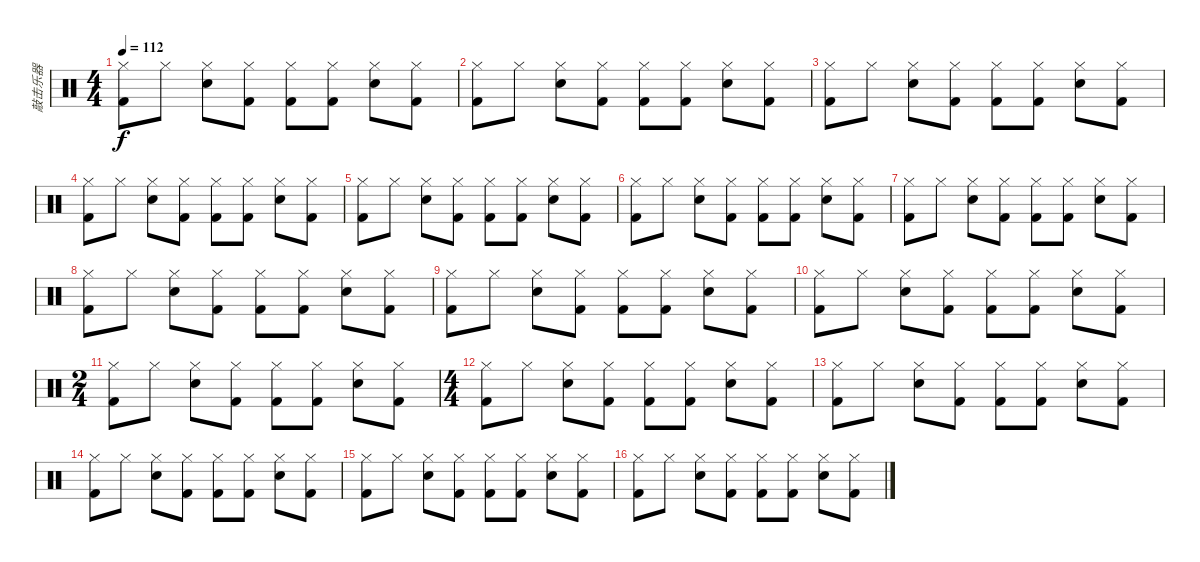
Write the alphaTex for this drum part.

\track ("敲击乐器" "敲击乐器") {instrument percussion}
\staff {score}
\articulation defaults
\ts (4 4)
\tempo 112
\clef neutral
\ks c
("Hi-Hat (closed)" "Kick (hit) 2").8{dy f} "Hi-Hat (closed)".8 ("Hi-Hat (closed)" "Snare (hit) 2").8 ("Hi-Hat (closed)" "Kick (hit) 2").8 ("Hi-Hat (closed)" "Kick (hit) 2").8 ("Hi-Hat (closed)" "Kick (hit) 2").8 ("Hi-Hat (closed)" "Snare (hit) 2").8 ("Hi-Hat (closed)" "Kick (hit) 2").8 |
("Hi-Hat (closed)" "Kick (hit) 2").8 "Hi-Hat (closed)".8 ("Hi-Hat (closed)" "Snare (hit) 2").8 ("Hi-Hat (closed)" "Kick (hit) 2").8 ("Hi-Hat (closed)" "Kick (hit) 2").8 ("Hi-Hat (closed)" "Kick (hit) 2").8 ("Hi-Hat (closed)" "Snare (hit) 2").8 ("Hi-Hat (closed)" "Kick (hit) 2").8 |
("Hi-Hat (closed)" "Kick (hit) 2").8 "Hi-Hat (closed)".8 ("Hi-Hat (closed)" "Snare (hit) 2").8 ("Hi-Hat (closed)" "Kick (hit) 2").8 ("Hi-Hat (closed)" "Kick (hit) 2").8 ("Hi-Hat (closed)" "Kick (hit) 2").8 ("Hi-Hat (closed)" "Snare (hit) 2").8 ("Hi-Hat (closed)" "Kick (hit) 2").8 |
("Hi-Hat (closed)" "Kick (hit) 2").8 "Hi-Hat (closed)".8 ("Hi-Hat (closed)" "Snare (hit) 2").8 ("Hi-Hat (closed)" "Kick (hit) 2").8 ("Hi-Hat (closed)" "Kick (hit) 2").8 ("Hi-Hat (closed)" "Kick (hit) 2").8 ("Hi-Hat (closed)" "Snare (hit) 2").8 ("Hi-Hat (closed)" "Kick (hit) 2").8 |
("Hi-Hat (closed)" "Kick (hit) 2").8 "Hi-Hat (closed)".8 ("Hi-Hat (closed)" "Snare (hit) 2").8 ("Hi-Hat (closed)" "Kick (hit) 2").8 ("Hi-Hat (closed)" "Kick (hit) 2").8 ("Hi-Hat (closed)" "Kick (hit) 2").8 ("Hi-Hat (closed)" "Snare (hit) 2").8 ("Hi-Hat (closed)" "Kick (hit) 2").8 |
("Hi-Hat (closed)" "Kick (hit) 2").8 "Hi-Hat (closed)".8 ("Hi-Hat (closed)" "Snare (hit) 2").8 ("Hi-Hat (closed)" "Kick (hit) 2").8 ("Hi-Hat (closed)" "Kick (hit) 2").8 ("Hi-Hat (closed)" "Kick (hit) 2").8 ("Hi-Hat (closed)" "Snare (hit) 2").8 ("Hi-Hat (closed)" "Kick (hit) 2").8 |
("Hi-Hat (closed)" "Kick (hit) 2").8 "Hi-Hat (closed)".8 ("Hi-Hat (closed)" "Snare (hit) 2").8 ("Hi-Hat (closed)" "Kick (hit) 2").8 ("Hi-Hat (closed)" "Kick (hit) 2").8 ("Hi-Hat (closed)" "Kick (hit) 2").8 ("Hi-Hat (closed)" "Snare (hit) 2").8 ("Hi-Hat (closed)" "Kick (hit) 2").8 |
("Hi-Hat (closed)" "Kick (hit) 2").8 "Hi-Hat (closed)".8 ("Hi-Hat (closed)" "Snare (hit) 2").8 ("Hi-Hat (closed)" "Kick (hit) 2").8 ("Hi-Hat (closed)" "Kick (hit) 2").8 ("Hi-Hat (closed)" "Kick (hit) 2").8 ("Hi-Hat (closed)" "Snare (hit) 2").8 ("Hi-Hat (closed)" "Kick (hit) 2").8 |
("Hi-Hat (closed)" "Kick (hit) 2").8 "Hi-Hat (closed)".8 ("Hi-Hat (closed)" "Snare (hit) 2").8 ("Hi-Hat (closed)" "Kick (hit) 2").8 ("Hi-Hat (closed)" "Kick (hit) 2").8 ("Hi-Hat (closed)" "Kick (hit) 2").8 ("Hi-Hat (closed)" "Snare (hit) 2").8 ("Hi-Hat (closed)" "Kick (hit) 2").8 |
("Hi-Hat (closed)" "Kick (hit) 2").8 "Hi-Hat (closed)".8 ("Hi-Hat (closed)" "Snare (hit) 2").8 ("Hi-Hat (closed)" "Kick (hit) 2").8 ("Hi-Hat (closed)" "Kick (hit) 2").8 ("Hi-Hat (closed)" "Kick (hit) 2").8 ("Hi-Hat (closed)" "Snare (hit) 2").8 ("Hi-Hat (closed)" "Kick (hit) 2").8 |
\ts (2 4)
("Hi-Hat (closed)" "Kick (hit) 2").8 "Hi-Hat (closed)".8 ("Hi-Hat (closed)" "Snare (hit) 2").8 ("Hi-Hat (closed)" "Kick (hit) 2").8 ("Hi-Hat (closed)" "Kick (hit) 2").8 ("Hi-Hat (closed)" "Kick (hit) 2").8 ("Hi-Hat (closed)" "Snare (hit) 2").8 ("Hi-Hat (closed)" "Kick (hit) 2").8 |
\ts (4 4)
("Hi-Hat (closed)" "Kick (hit) 2").8 "Hi-Hat (closed)".8 ("Hi-Hat (closed)" "Snare (hit) 2").8 ("Hi-Hat (closed)" "Kick (hit) 2").8 ("Hi-Hat (closed)" "Kick (hit) 2").8 ("Hi-Hat (closed)" "Kick (hit) 2").8 ("Hi-Hat (closed)" "Snare (hit) 2").8 ("Hi-Hat (closed)" "Kick (hit) 2").8 |
("Hi-Hat (closed)" "Kick (hit) 2").8 "Hi-Hat (closed)".8 ("Hi-Hat (closed)" "Snare (hit) 2").8 ("Hi-Hat (closed)" "Kick (hit) 2").8 ("Hi-Hat (closed)" "Kick (hit) 2").8 ("Hi-Hat (closed)" "Kick (hit) 2").8 ("Hi-Hat (closed)" "Snare (hit) 2").8 ("Hi-Hat (closed)" "Kick (hit) 2").8 |
("Hi-Hat (closed)" "Kick (hit) 2").8 "Hi-Hat (closed)".8 ("Hi-Hat (closed)" "Snare (hit) 2").8 ("Hi-Hat (closed)" "Kick (hit) 2").8 ("Hi-Hat (closed)" "Kick (hit) 2").8 ("Hi-Hat (closed)" "Kick (hit) 2").8 ("Hi-Hat (closed)" "Snare (hit) 2").8 ("Hi-Hat (closed)" "Kick (hit) 2").8 |
("Hi-Hat (closed)" "Kick (hit) 2").8 "Hi-Hat (closed)".8 ("Hi-Hat (closed)" "Snare (hit) 2").8 ("Hi-Hat (closed)" "Kick (hit) 2").8 ("Hi-Hat (closed)" "Kick (hit) 2").8 ("Hi-Hat (closed)" "Kick (hit) 2").8 ("Hi-Hat (closed)" "Snare (hit) 2").8 ("Hi-Hat (closed)" "Kick (hit) 2").8 |
("Hi-Hat (closed)" "Kick (hit) 2").8 "Hi-Hat (closed)".8 ("Hi-Hat (closed)" "Snare (hit) 2").8 ("Hi-Hat (closed)" "Kick (hit) 2").8 ("Hi-Hat (closed)" "Kick (hit) 2").8 ("Hi-Hat (closed)" "Kick (hit) 2").8 ("Hi-Hat (closed)" "Snare (hit) 2").8 ("Hi-Hat (closed)" "Kick (hit) 2").8
